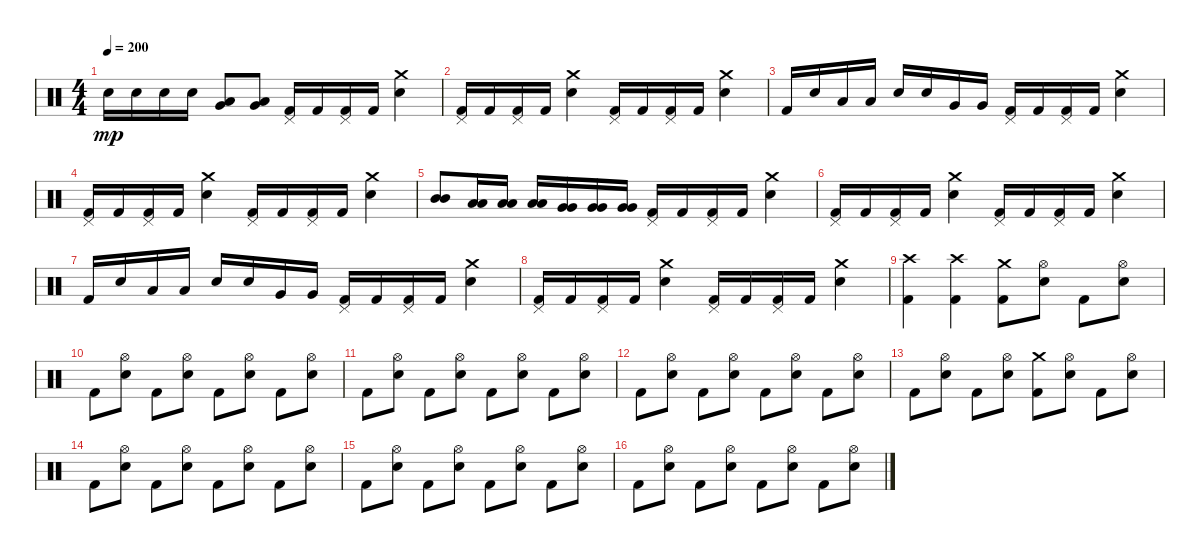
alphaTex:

\track "" {instrument percussion}
\staff {score}
\articulation defaults
\ts (4 4)
\tempo 200
\clef neutral
\ks c "Electric Snare (hit)".16{dy mp} "Electric Snare (hit)".16 "Electric Snare (hit)".16 "Electric Snare (hit)".16
("Very Low Tom (hit)" "Low Tom (hit)").8 ("Very Low Tom (hit)" "Low Tom (hit)").8 ("Kick (hit) 2" "Pedal Hi-Hat (hit)").16 "Kick (hit) 2".16 ("Kick (hit) 2" "Pedal Hi-Hat (hit)").16 "Kick (hit) 2".16 ("Electric Snare (hit)" "Crash medium (hit)").4 |
("Kick (hit) 2" "Pedal Hi-Hat (hit)").16 "Kick (hit) 2".16 ("Kick (hit) 2" "Pedal Hi-Hat (hit)").16 "Kick (hit) 2".16 ("Electric Snare (hit)" "Crash medium (hit)").4 ("Kick (hit) 2" "Pedal Hi-Hat (hit)").16 "Kick (hit) 2".16 ("Kick (hit) 2" "Pedal Hi-Hat (hit)").16 "Kick (hit) 2".16 ("Electric Snare (hit)" "Crash medium (hit)").4 |
"Kick (hit) 2".16 "Electric Snare (hit)".16 "Low Tom (hit)".16 "Low Tom (hit)".16 "Electric Snare (hit)".16 "Electric Snare (hit)".16 "Very Low Tom (hit)".16 "Very Low Tom (hit)".16 ("Kick (hit) 2" "Pedal Hi-Hat (hit)").16 "Kick (hit) 2".16 ("Kick (hit) 2" "Pedal Hi-Hat (hit)").16 "Kick (hit) 2".16 ("Electric Snare (hit)" "Crash medium (hit)").4 |
("Kick (hit) 2" "Pedal Hi-Hat (hit)").16 "Kick (hit) 2".16 ("Kick (hit) 2" "Pedal Hi-Hat (hit)").16 "Kick (hit) 2".16 ("Electric Snare (hit)" "Crash medium (hit)").4 ("Kick (hit) 2" "Pedal Hi-Hat (hit)").16 "Kick (hit) 2".16 ("Kick (hit) 2" "Pedal Hi-Hat (hit)").16 "Kick (hit) 2".16 ("Electric Snare (hit)" "Crash medium (hit)").4 |
("Mid Tom (hit)" "Mid Tom (hit)").8 ("Low Tom (hit)" "Low Tom (hit)").16 ("Low Tom (hit)" "Low Tom (hit)").16 ("Low Tom (hit)" "Low Tom (hit)").16 ("Very Low Tom (hit)" "Very Low Tom (hit)").16 ("Very Low Tom (hit)" "Very Low Tom (hit)").16 ("Very Low Tom (hit)" "Very Low Tom (hit)").16 ("Kick (hit) 2" "Pedal Hi-Hat (hit)").16 "Kick (hit) 2".16 ("Kick (hit) 2" "Pedal Hi-Hat (hit)").16 "Kick (hit) 2".16 ("Electric Snare (hit)" "Crash medium (hit)").4 |
("Kick (hit) 2" "Pedal Hi-Hat (hit)").16 "Kick (hit) 2".16 ("Kick (hit) 2" "Pedal Hi-Hat (hit)").16 "Kick (hit) 2".16 ("Electric Snare (hit)" "Crash medium (hit)").4 ("Kick (hit) 2" "Pedal Hi-Hat (hit)").16 "Kick (hit) 2".16 ("Kick (hit) 2" "Pedal Hi-Hat (hit)").16 "Kick (hit) 2".16 ("Electric Snare (hit)" "Crash medium (hit)").4 |
"Kick (hit) 2".16 "Electric Snare (hit)".16 "Low Tom (hit)".16 "Low Tom (hit)".16 "Electric Snare (hit)".16 "Electric Snare (hit)".16 "Very Low Tom (hit)".16 "Very Low Tom (hit)".16 ("Kick (hit) 2" "Pedal Hi-Hat (hit)").16 "Kick (hit) 2".16 ("Kick (hit) 2" "Pedal Hi-Hat (hit)").16 "Kick (hit) 2".16 ("Electric Snare (hit)" "Crash medium (hit)").4 |
("Kick (hit) 2" "Pedal Hi-Hat (hit)").16 "Kick (hit) 2".16 ("Kick (hit) 2" "Pedal Hi-Hat (hit)").16 "Kick (hit) 2".16 ("Electric Snare (hit)" "Crash medium (hit)").4 ("Kick (hit) 2" "Pedal Hi-Hat (hit)").16 "Kick (hit) 2".16 ("Kick (hit) 2" "Pedal Hi-Hat (hit)").16 "Kick (hit) 2".16 ("Electric Snare (hit)" "Crash medium (hit)").4 |
("Kick (hit) 2" "Crash high (hit)").4 ("Kick (hit) 2" "Crash high (hit)").4 ("Kick (hit) 2" "Crash medium (hit)").8 ("Electric Snare (hit)" "Hi-Hat (open)").8 "Kick (hit) 2".8 ("Electric Snare (hit)" "Hi-Hat (open)").8 |
"Kick (hit) 2".8 ("Electric Snare (hit)" "Hi-Hat (open)").8 "Kick (hit) 2".8 ("Electric Snare (hit)" "Hi-Hat (open)").8 "Kick (hit) 2".8 ("Electric Snare (hit)" "Hi-Hat (open)").8 "Kick (hit) 2".8 ("Electric Snare (hit)" "Hi-Hat (open)").8 |
"Kick (hit) 2".8 ("Electric Snare (hit)" "Hi-Hat (open)").8 "Kick (hit) 2".8 ("Electric Snare (hit)" "Hi-Hat (open)").8 "Kick (hit) 2".8 ("Electric Snare (hit)" "Hi-Hat (open)").8 "Kick (hit) 2".8 ("Electric Snare (hit)" "Hi-Hat (open)").8 |
"Kick (hit) 2".8 ("Electric Snare (hit)" "Hi-Hat (open)").8 "Kick (hit) 2".8 ("Electric Snare (hit)" "Hi-Hat (open)").8 "Kick (hit) 2".8 ("Electric Snare (hit)" "Hi-Hat (open)").8 "Kick (hit) 2".8 ("Electric Snare (hit)" "Hi-Hat (open)").8 |
"Kick (hit) 2".8 ("Electric Snare (hit)" "Hi-Hat (open)").8 "Kick (hit) 2".8 ("Electric Snare (hit)" "Hi-Hat (open)").8 ("Kick (hit) 2" "Crash medium (hit)").8 ("Electric Snare (hit)" "Hi-Hat (open)").8 "Kick (hit) 2".8 ("Electric Snare (hit)" "Hi-Hat (open)").8 |
"Kick (hit) 2".8 ("Electric Snare (hit)" "Hi-Hat (open)").8 "Kick (hit) 2".8 ("Electric Snare (hit)" "Hi-Hat (open)").8 "Kick (hit) 2".8 ("Electric Snare (hit)" "Hi-Hat (open)").8 "Kick (hit) 2".8 ("Electric Snare (hit)" "Hi-Hat (open)").8 |
"Kick (hit) 2".8 ("Electric Snare (hit)" "Hi-Hat (open)").8 "Kick (hit) 2".8 ("Electric Snare (hit)" "Hi-Hat (open)").8 "Kick (hit) 2".8 ("Electric Snare (hit)" "Hi-Hat (open)").8 "Kick (hit) 2".8 ("Electric Snare (hit)" "Hi-Hat (open)").8 |
"Kick (hit) 2".8 ("Electric Snare (hit)" "Hi-Hat (open)").8 "Kick (hit) 2".8 ("Electric Snare (hit)" "Hi-Hat (open)").8 "Kick (hit) 2".8 ("Electric Snare (hit)" "Hi-Hat (open)").8 "Kick (hit) 2".8 ("Electric Snare (hit)" "Hi-Hat (open)").8
